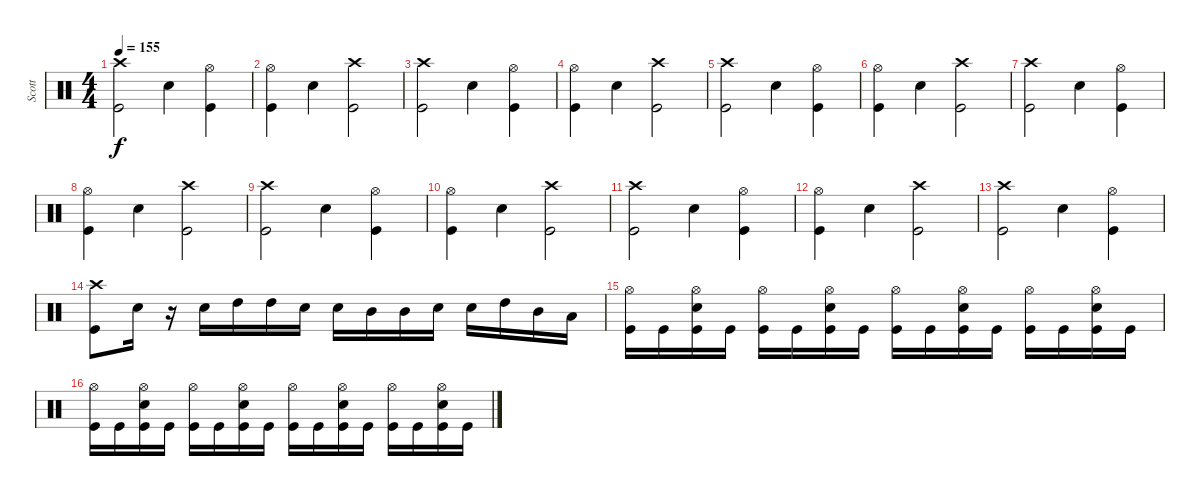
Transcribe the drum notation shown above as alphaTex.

\track ("Scott" "Scott") {instrument percussion}
\staff {score}
\articulation defaults
\ts (4 4)
\tempo 155
\clef neutral
\ks c
("Crash high (hit)" "Kick (hit)").2{dy f} "Snare (hit) 2".4 ("Hi-Hat (open)" "Kick (hit)").4 |
("Hi-Hat (open)" "Kick (hit)").4 "Snare (hit) 2".4 ("Crash high (hit)" "Kick (hit)").2 |
("Crash high (hit)" "Kick (hit)").2 "Snare (hit) 2".4 ("Hi-Hat (open)" "Kick (hit)").4 |
("Hi-Hat (open)" "Kick (hit)").4 "Snare (hit) 2".4 ("Crash high (hit)" "Kick (hit)").2 |
("Crash high (hit)" "Kick (hit)").2 "Snare (hit) 2".4 ("Hi-Hat (open)" "Kick (hit)").4 |
("Hi-Hat (open)" "Kick (hit)").4 "Snare (hit) 2".4 ("Crash high (hit)" "Kick (hit)").2 |
("Crash high (hit)" "Kick (hit)").2 "Snare (hit) 2".4 ("Hi-Hat (open)" "Kick (hit)").4 |
("Hi-Hat (open)" "Kick (hit)").4 "Snare (hit) 2".4 ("Crash high (hit)" "Kick (hit)").2 |
("Crash high (hit)" "Kick (hit)").2 "Snare (hit) 2".4 ("Hi-Hat (open)" "Kick (hit)").4 |
("Hi-Hat (open)" "Kick (hit)").4 "Snare (hit) 2".4 ("Crash high (hit)" "Kick (hit)").2 |
("Crash high (hit)" "Kick (hit)").2 "Snare (hit) 2".4 ("Hi-Hat (open)" "Kick (hit)").4 |
("Hi-Hat (open)" "Kick (hit)").4 "Snare (hit) 2".4 ("Crash high (hit)" "Kick (hit)").2 |
("Crash high (hit)" "Kick (hit)").2 "Snare (hit) 2".4 ("Hi-Hat (open)" "Kick (hit)").4 |
("Crash high (hit)" "Kick (hit)").8 "Snare (hit) 2".16 r.16 "Snare (hit) 2".16 "High Tom (hit)".16 "High Tom (hit)".16 "Snare (hit) 2".16 "Snare (hit) 2".16 "Mid Tom (hit)".16 "Mid Tom (hit)".16 "Snare (hit) 2".16 "Snare (hit) 2".16 "High Tom (hit)".16 "Mid Tom (hit)".16 "Low Tom (hit)".16 |
("Hi-Hat (open)" "Kick (hit)").16 "Kick (hit)".16 ("Hi-Hat (open)" "Snare (hit) 2" "Kick (hit)").16 "Kick (hit)".16 ("Hi-Hat (open)" "Kick (hit)").16 "Kick (hit)".16 ("Hi-Hat (open)" "Snare (hit) 2" "Kick (hit)").16 "Kick (hit)".16 ("Hi-Hat (open)" "Kick (hit)").16 "Kick (hit)".16 ("Hi-Hat (open)" "Snare (hit) 2" "Kick (hit)").16 "Kick (hit)".16 ("Hi-Hat (open)" "Kick (hit)").16 "Kick (hit)".16 ("Hi-Hat (open)" "Snare (hit) 2" "Kick (hit)").16 "Kick (hit)".16 |
("Hi-Hat (open)" "Kick (hit)").16 "Kick (hit)".16 ("Hi-Hat (open)" "Snare (hit) 2" "Kick (hit)").16 "Kick (hit)".16 ("Hi-Hat (open)" "Kick (hit)").16 "Kick (hit)".16 ("Hi-Hat (open)" "Snare (hit) 2" "Kick (hit)").16 "Kick (hit)".16 ("Hi-Hat (open)" "Kick (hit)").16 "Kick (hit)".16 ("Hi-Hat (open)" "Snare (hit) 2" "Kick (hit)").16 "Kick (hit)".16 ("Hi-Hat (open)" "Kick (hit)").16 "Kick (hit)".16 ("Hi-Hat (open)" "Snare (hit) 2" "Kick (hit)").16 "Kick (hit)".16
